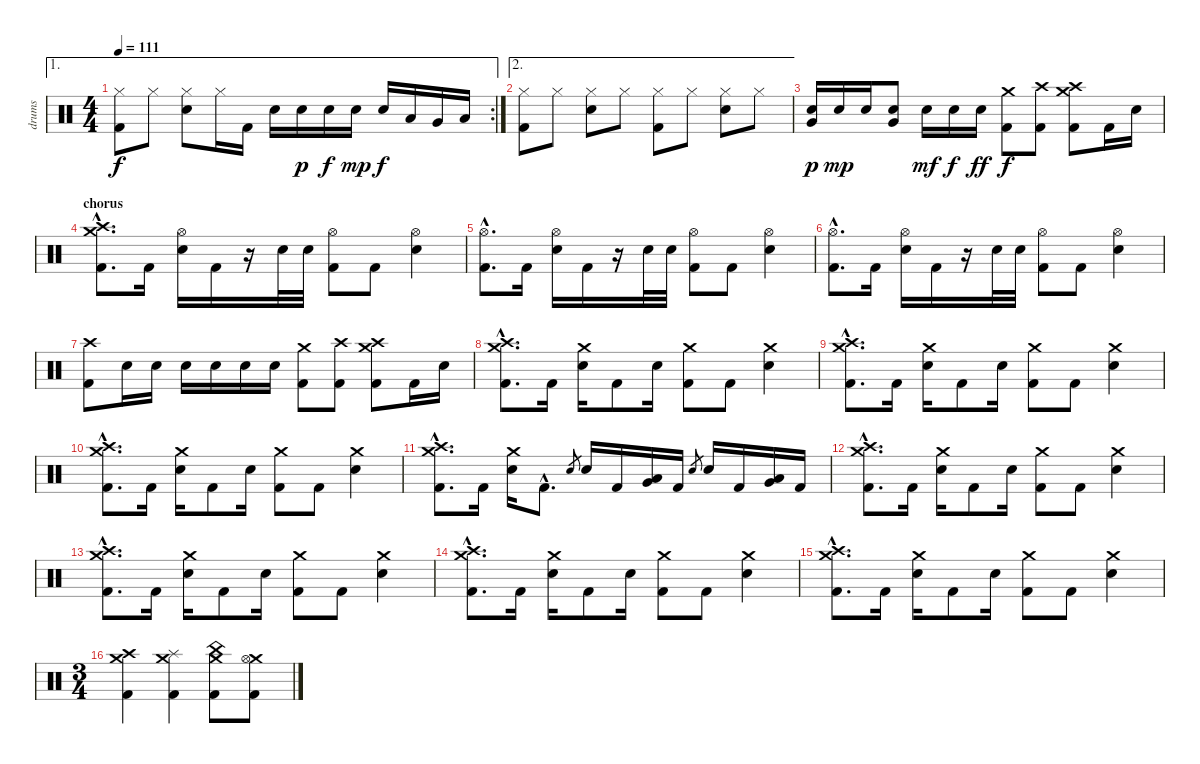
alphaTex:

\track ("drums" "drums") {instrument percussion}
\staff {score}
\articulation defaults
\ae 1
\rc 2
\ts (4 4)
\tempo 111
\clef neutral
\ks c
("Hi-Hat (closed)" "Kick (hit) 2").8{dy f} "Hi-Hat (closed)".8 ("Hi-Hat (closed)" "Electric Snare (hit)").8 "Hi-Hat (closed)".16 "Kick (hit) 2".16 "Electric Snare (hit)".16 "Electric Snare (hit)".16{dy p} "Electric Snare (hit)".16{dy f} "Electric Snare (hit)".16{dy mp} "Electric Snare (hit)".16{dy f} "Low Tom (hit)".16 "Very Low Tom (hit)".16 "Low Floor Tom (hit)".16 |
\ae 2
("Hi-Hat (closed)" "Kick (hit) 2").8 "Hi-Hat (closed)".8 ("Hi-Hat (closed)" "Electric Snare (hit)").8 "Hi-Hat (closed)".8 ("Hi-Hat (closed)" "Kick (hit) 2").8 "Hi-Hat (closed)".8 ("Hi-Hat (closed)" "Electric Snare (hit)").8 "Hi-Hat (closed)".8 |
("Very Low Tom (hit)" "Electric Snare (hit)").16{dy p} "Electric Snare (hit)".16{dy mp} "Electric Snare (hit)".16 ("Very Low Tom (hit)" "Electric Snare (hit)").8 "Electric Snare (hit)".16{dy mf} "Electric Snare (hit)".16{dy f} "Electric Snare (hit)".16{dy ff} ("Crash medium (hit)" "Kick (hit) 2").8{dy f} ("Crash high (hit)" "Kick (hit) 2").8 ("Crash high (hit)" "Crash medium (hit)" "Kick (hit) 2").8 "Kick (hit) 2".16 "Electric Snare (hit)".16 |
\section ("" "chorus")
("Crash high (hit)"{hac} "Crash medium (hit)"{hac} "Kick (hit) 2"{hac}).8{d} "Kick (hit) 2".16 ("Hi-Hat (open)" "Electric Snare (hit)").16 "Kick (hit) 2".16 r.16 "Electric Snare (hit)".32 "Electric Snare (hit)".32 ("Hi-Hat (open)" "Kick (hit) 2").8 "Kick (hit) 2".8 ("Hi-Hat (open)" "Electric Snare (hit)").4 |
("Hi-Hat (open)"{hac} "Kick (hit) 2"{hac}).8{d} "Kick (hit) 2".16 ("Hi-Hat (open)" "Electric Snare (hit)").16 "Kick (hit) 2".16 r.16 "Electric Snare (hit)".32 "Electric Snare (hit)".32 ("Hi-Hat (open)" "Kick (hit) 2").8 "Kick (hit) 2".8 ("Hi-Hat (open)" "Electric Snare (hit)").4 |
("Hi-Hat (open)"{hac} "Kick (hit) 2"{hac}).8{d} "Kick (hit) 2".16 ("Hi-Hat (open)" "Electric Snare (hit)").16 "Kick (hit) 2".16 r.16 "Electric Snare (hit)".32 "Electric Snare (hit)".32 ("Hi-Hat (open)" "Kick (hit) 2").8 "Kick (hit) 2".8 ("Hi-Hat (open)" "Electric Snare (hit)").4 |
("Crash high (hit)" "Kick (hit) 2").8 "Electric Snare (hit)".16 "Electric Snare (hit)".16 "Electric Snare (hit)".16 "Electric Snare (hit)".16 "Electric Snare (hit)".16 "Electric Snare (hit)".16 ("Crash medium (hit)" "Kick (hit) 2").8 ("Crash high (hit)" "Kick (hit) 2").8 ("Crash high (hit)" "Crash medium (hit)" "Kick (hit) 2").8 "Kick (hit) 2".16 "Electric Snare (hit)".16 |
("Crash high (hit)"{hac} "Crash medium (hit)"{hac} "Kick (hit) 2"{hac}).8{d} "Kick (hit) 2".16 ("Crash medium (hit)" "Electric Snare (hit)").16 "Kick (hit) 2".8 "Electric Snare (hit)".16 ("Crash medium (hit)" "Kick (hit) 2").8 "Kick (hit) 2".8 ("Crash medium (hit)" "Electric Snare (hit)").4 |
("Crash medium (hit)"{hac} "Crash high (hit)"{hac} "Kick (hit) 2"{hac}).8{d} "Kick (hit) 2".16 ("Crash medium (hit)" "Electric Snare (hit)").16 "Kick (hit) 2".8 "Electric Snare (hit)".16 ("Crash medium (hit)" "Kick (hit) 2").8 "Kick (hit) 2".8 ("Crash medium (hit)" "Electric Snare (hit)").4 |
("Crash medium (hit)"{hac} "Crash high (hit)"{hac} "Kick (hit) 2"{hac}).8{d} "Kick (hit) 2".16 ("Crash medium (hit)" "Electric Snare (hit)").16 "Kick (hit) 2".8 "Electric Snare (hit)".16 ("Crash medium (hit)" "Kick (hit) 2").8 "Kick (hit) 2".8 ("Crash medium (hit)" "Electric Snare (hit)").4 |
("Crash medium (hit)"{hac} "Crash high (hit)"{hac} "Kick (hit) 2"{hac}).8{d} "Kick (hit) 2".16 ("Crash medium (hit)" "Electric Snare (hit)").16 "Kick (hit) 2"{hac}.8{d} "Electric Snare (hit)".8{gr} "Electric Snare (hit)".16 "Kick (hit) 2".16 ("Very Low Tom (hit)" "Low Tom (hit)").16 "Kick (hit) 2".16 "Electric Snare (hit)".8{gr} "Electric Snare (hit)".16 "Kick (hit) 2".16 ("Very Low Tom (hit)" "Low Tom (hit)").16 "Kick (hit) 2".16 |
("Crash high (hit)"{hac} "Crash medium (hit)"{hac} "Kick (hit) 2"{hac}).8{d} "Kick (hit) 2".16 ("Crash medium (hit)" "Electric Snare (hit)").16 "Kick (hit) 2".8 "Electric Snare (hit)".16 ("Crash medium (hit)" "Kick (hit) 2").8 "Kick (hit) 2".8 ("Crash medium (hit)" "Electric Snare (hit)").4 |
("Crash medium (hit)"{hac} "Crash high (hit)"{hac} "Kick (hit) 2"{hac}).8{d} "Kick (hit) 2".16 ("Crash medium (hit)" "Electric Snare (hit)").16 "Kick (hit) 2".8 "Electric Snare (hit)".16 ("Crash medium (hit)" "Kick (hit) 2").8 "Kick (hit) 2".8 ("Crash medium (hit)" "Electric Snare (hit)").4 |
("Crash medium (hit)"{hac} "Crash high (hit)"{hac} "Kick (hit) 2"{hac}).8{d} "Kick (hit) 2".16 ("Crash medium (hit)" "Electric Snare (hit)").16 "Kick (hit) 2".8 "Electric Snare (hit)".16 ("Crash medium (hit)" "Kick (hit) 2").8 "Kick (hit) 2".8 ("Crash medium (hit)" "Electric Snare (hit)").4 |
("Crash medium (hit)"{hac} "Crash high (hit)"{hac} "Kick (hit) 2"{hac}).8{d} "Kick (hit) 2".16 ("Crash medium (hit)" "Electric Snare (hit)").16 "Kick (hit) 2".8 "Electric Snare (hit)".16 ("Crash medium (hit)" "Kick (hit) 2").8 "Kick (hit) 2".8 ("Crash medium (hit)" "Electric Snare (hit)").4 |
\ts (3 4)
("Crash medium (hit)" "Crash high (hit)" "Kick (hit) 2").4 ("Crash medium (hit)" "Splash (hit)" "Kick (hit) 2").4 ("Crash medium (hit)" "China (hit)" "Kick (hit) 2").8 ("Crash medium (hit)" "Hi-Hat (open)" "Kick (hit) 2").8
